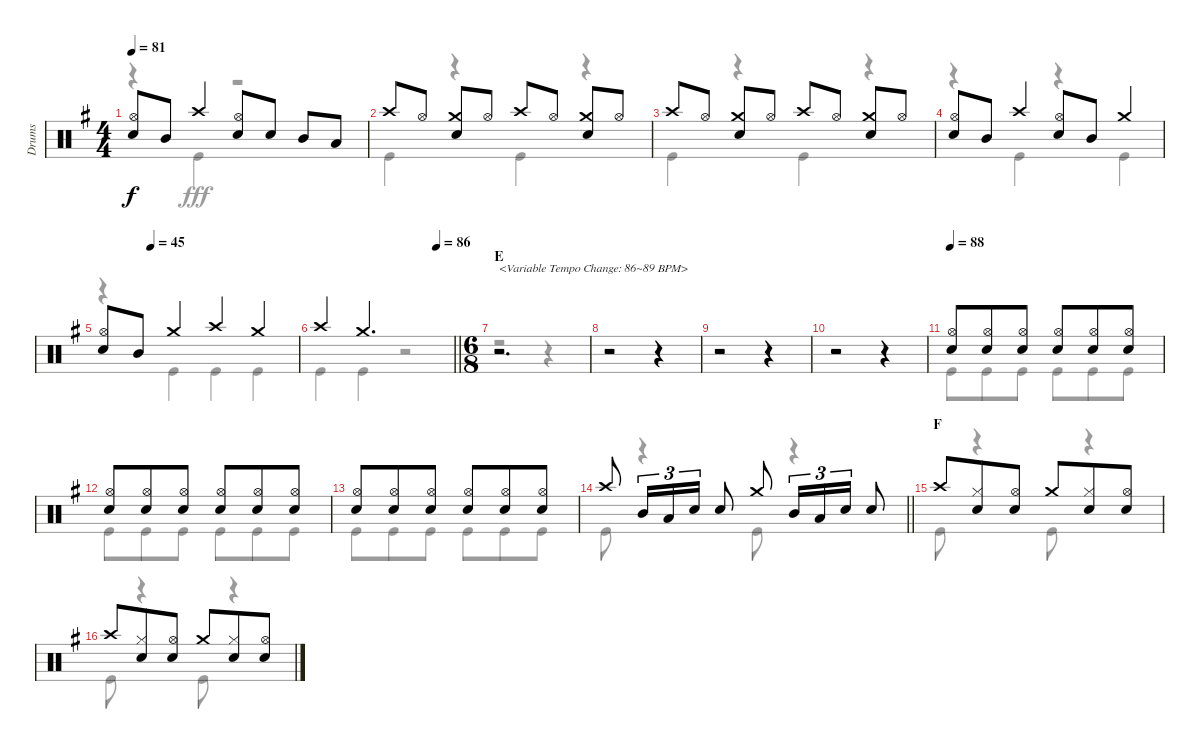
\track ("Drums" "Drums") {instrument percussion}
\staff {score}
\articulation defaults
\voice
\ts (4 4)
\tempo 81
\clef neutral
\ks g
("Hi-Hat (open)" "Snare (hit) 2").8{dy f} "Mid Tom (hit)".8 "Crash high (hit)".4 ("Hi-Hat (open)" "Snare (hit) 2").8 "Snare (hit) 2".8 "Mid Tom (hit)".8 "Low Tom (hit)".8 |
"Crash high (hit)".8 "Hi-Hat (open)".8 ("Crash medium (hit)" "Snare (hit) 2").8 "Hi-Hat (open)".8 "Crash high (hit)".8 "Hi-Hat (open)".8 ("Crash medium (hit)" "Snare (hit) 2").8 "Hi-Hat (open)".8 |
"Crash high (hit)".8 "Hi-Hat (open)".8 ("Crash medium (hit)" "Snare (hit) 2").8 "Hi-Hat (open)".8 "Crash high (hit)".8 "Hi-Hat (open)".8 ("Crash medium (hit)" "Snare (hit) 2").8 "Hi-Hat (open)".8 |
("Hi-Hat (open)" "Snare (hit) 2").8 "Mid Tom (hit)".8 "Crash high (hit)".4 ("Hi-Hat (open)" "Snare (hit) 2").8 "Mid Tom (hit)".8 "Crash medium (hit)".4 |
\tempo (45 0.25)
("Hi-Hat (open)" "Snare (hit) 2").8 "Mid Tom (hit)".8 "Crash medium (hit)".4 "Crash high (hit)".4 "Crash medium (hit)".4 |
\tempo (86 0.875)
\barLineRight lightlight "Crash high (hit)".4 "Crash medium (hit)".2{d}
|
\ts (6 8)
\section ("" "E")
r.2{d txt "<Variable Tempo Change: 86~89 BPM>"} |
r.2 r.4 |
r.2 r.4 |
r.2 r.4 |
\tempo 88
("Hi-Hat (open)" "Snare (hit) 2").8 ("Hi-Hat (open)" "Snare (hit) 2").8 ("Hi-Hat (open)" "Snare (hit) 2").8 ("Hi-Hat (open)" "Snare (hit) 2").8 ("Hi-Hat (open)" "Snare (hit) 2").8 ("Hi-Hat (open)" "Snare (hit) 2").8 |
("Hi-Hat (open)" "Snare (hit) 2").8 ("Hi-Hat (open)" "Snare (hit) 2").8 ("Hi-Hat (open)" "Snare (hit) 2").8 ("Hi-Hat (open)" "Snare (hit) 2").8 ("Hi-Hat (open)" "Snare (hit) 2").8 ("Hi-Hat (open)" "Snare (hit) 2").8 |
("Hi-Hat (open)" "Snare (hit) 2").8 ("Hi-Hat (open)" "Snare (hit) 2").8 ("Hi-Hat (open)" "Snare (hit) 2").8 ("Hi-Hat (open)" "Snare (hit) 2").8 ("Hi-Hat (open)" "Snare (hit) 2").8 ("Hi-Hat (open)" "Snare (hit) 2").8 |
\barLineRight lightlight "Crash high (hit)".8 "Mid Tom (hit)".16{tu (3 2)} "Low Tom (hit)".16{tu (3 2)} "Snare (hit) 2".16{tu (3 2)} "Snare (hit) 2".8 "Crash medium (hit)".8 "Mid Tom (hit)".16{tu (3 2)} "Low Tom (hit)".16{tu (3 2)} "Snare (hit) 2".16{tu (3 2)} "Snare (hit) 2".8
|
\section ("" "F")
"Crash high (hit)".8 ("Hi-Hat (closed)" "Snare (hit) 2").8 ("Hi-Hat (open)" "Snare (hit) 2").8 "Crash medium (hit)".8 ("Hi-Hat (closed)" "Snare (hit) 2").8 ("Hi-Hat (open)" "Snare (hit) 2").8 |
"Crash high (hit)".8 ("Hi-Hat (closed)" "Snare (hit) 2").8 ("Hi-Hat (open)" "Snare (hit) 2").8 "Crash medium (hit)".8 ("Hi-Hat (closed)" "Snare (hit) 2").8 ("Hi-Hat (open)" "Snare (hit) 2").8
\voice
\clef neutral
\ottava regular
\simile none
\ks g
r.4{dy fff} "Kick (hit)".4 r.2 |
"Kick (hit)".4 r.4 "Kick (hit)".4 r.4 |
"Kick (hit)".4 r.4 "Kick (hit)".4 r.4 |
r.4 "Kick (hit)".4 r.4 "Kick (hit)".4 |
r.4 "Kick (hit)".4 "Kick (hit)".4 "Kick (hit)".4 |
\barLineRight lightlight "Kick (hit)".4 "Kick (hit)".4
r.2 |
r.2 r.4 |
r.2 r.4 |
r.2 r.4 |
r.2 r.4 |
"Kick (hit)".8 "Kick (hit)".8 "Kick (hit)".8 "Kick (hit)".8 "Kick (hit)".8 "Kick (hit)".8 |
"Kick (hit)".8 "Kick (hit)".8 "Kick (hit)".8 "Kick (hit)".8 "Kick (hit)".8 "Kick (hit)".8 |
"Kick (hit)".8 "Kick (hit)".8 "Kick (hit)".8 "Kick (hit)".8 "Kick (hit)".8 "Kick (hit)".8 |
\barLineRight lightlight "Kick (hit)".8
r.4 "Kick (hit)".8 r.4 |
"Kick (hit)".8 r.4 "Kick (hit)".8 r.4 |
"Kick (hit)".8 r.4 "Kick (hit)".8 r.4
